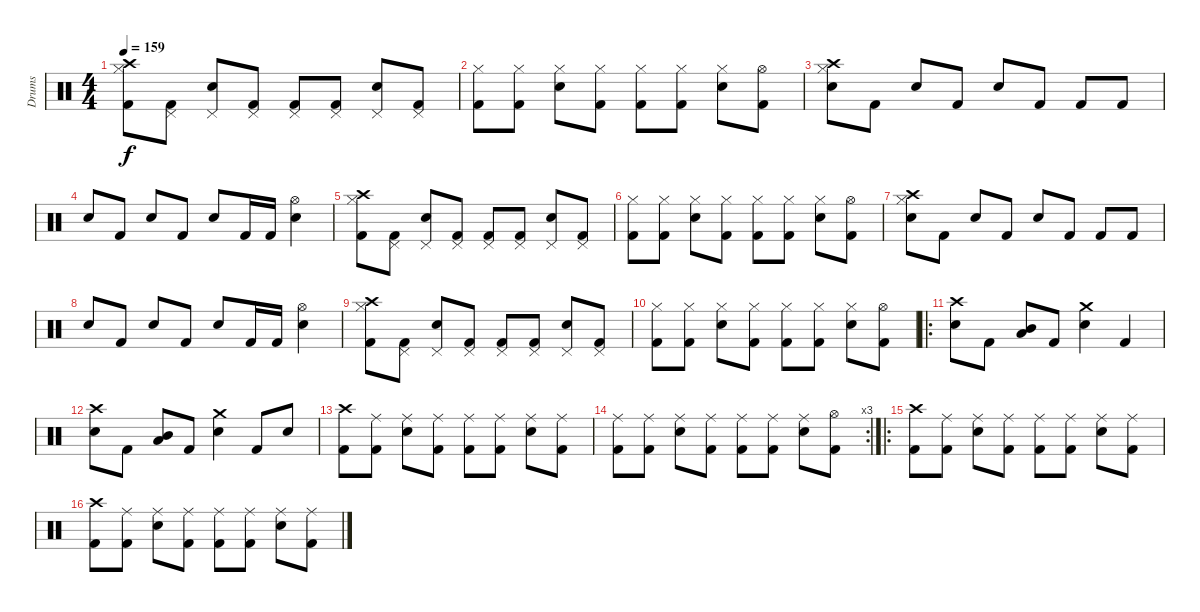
\track ("Drums" "Drums") {instrument percussion}
\staff {score}
\articulation defaults
\ts (4 4)
\tempo 159
\clef neutral
\ks c
("Crash high (hit)" "Hi-Hat (closed)" "Kick (hit) 2").8{dy f} ("Pedal Hi-Hat (hit)" "Kick (hit) 2").8 ("Pedal Hi-Hat (hit)" "Snare (hit) 2").8 ("Pedal Hi-Hat (hit)" "Kick (hit) 2").8 ("Pedal Hi-Hat (hit)" "Kick (hit) 2").8 ("Pedal Hi-Hat (hit)" "Kick (hit) 2").8 ("Pedal Hi-Hat (hit)" "Snare (hit) 2").8 ("Pedal Hi-Hat (hit)" "Kick (hit) 2").8 |
("Hi-Hat (closed)" "Kick (hit) 2").8 ("Hi-Hat (closed)" "Kick (hit) 2").8 ("Hi-Hat (closed)" "Snare (hit) 2").8 ("Hi-Hat (closed)" "Kick (hit) 2").8 ("Hi-Hat (closed)" "Kick (hit) 2").8 ("Hi-Hat (closed)" "Kick (hit) 2").8 ("Hi-Hat (closed)" "Snare (hit) 2").8 ("Hi-Hat (open)" "Kick (hit) 2").8 |
("Crash high (hit)" "Hi-Hat (closed)" "Snare (hit) 2").8 "Kick (hit) 2".8 "Snare (hit) 2".8 "Kick (hit) 2".8 "Snare (hit) 2".8 "Kick (hit) 2".8 "Kick (hit) 2".8 "Kick (hit) 2".8 |
"Snare (hit) 2".8 "Kick (hit) 2".8 "Snare (hit) 2".8 "Kick (hit) 2".8 "Snare (hit) 2".8 "Kick (hit) 2".16 "Kick (hit) 2".16 ("Hi-Hat (open)" "Snare (hit) 2").4 |
("Crash high (hit)" "Hi-Hat (closed)" "Kick (hit) 2").8 ("Pedal Hi-Hat (hit)" "Kick (hit) 2").8 ("Pedal Hi-Hat (hit)" "Snare (hit) 2").8 ("Pedal Hi-Hat (hit)" "Kick (hit) 2").8 ("Pedal Hi-Hat (hit)" "Kick (hit) 2").8 ("Pedal Hi-Hat (hit)" "Kick (hit) 2").8 ("Pedal Hi-Hat (hit)" "Snare (hit) 2").8 ("Pedal Hi-Hat (hit)" "Kick (hit) 2").8 |
("Hi-Hat (closed)" "Kick (hit) 2").8 ("Hi-Hat (closed)" "Kick (hit) 2").8 ("Hi-Hat (closed)" "Snare (hit) 2").8 ("Hi-Hat (closed)" "Kick (hit) 2").8 ("Hi-Hat (closed)" "Kick (hit) 2").8 ("Hi-Hat (closed)" "Kick (hit) 2").8 ("Hi-Hat (closed)" "Snare (hit) 2").8 ("Hi-Hat (open)" "Kick (hit) 2").8 |
("Crash high (hit)" "Hi-Hat (closed)" "Snare (hit) 2").8 "Kick (hit) 2".8 "Snare (hit) 2".8 "Kick (hit) 2".8 "Snare (hit) 2".8 "Kick (hit) 2".8 "Kick (hit) 2".8 "Kick (hit) 2".8 |
"Snare (hit) 2".8 "Kick (hit) 2".8 "Snare (hit) 2".8 "Kick (hit) 2".8 "Snare (hit) 2".8 "Kick (hit) 2".16 "Kick (hit) 2".16 ("Hi-Hat (open)" "Snare (hit) 2").4 |
("Crash high (hit)" "Hi-Hat (closed)" "Kick (hit) 2").8 ("Pedal Hi-Hat (hit)" "Kick (hit) 2").8 ("Pedal Hi-Hat (hit)" "Snare (hit) 2").8 ("Pedal Hi-Hat (hit)" "Kick (hit) 2").8 ("Pedal Hi-Hat (hit)" "Kick (hit) 2").8 ("Pedal Hi-Hat (hit)" "Kick (hit) 2").8 ("Pedal Hi-Hat (hit)" "Snare (hit) 2").8 ("Pedal Hi-Hat (hit)" "Kick (hit) 2").8 |
("Hi-Hat (closed)" "Kick (hit) 2").8 ("Hi-Hat (closed)" "Kick (hit) 2").8 ("Hi-Hat (closed)" "Snare (hit) 2").8 ("Hi-Hat (closed)" "Kick (hit) 2").8 ("Hi-Hat (closed)" "Kick (hit) 2").8 ("Hi-Hat (closed)" "Kick (hit) 2").8 ("Hi-Hat (closed)" "Snare (hit) 2").8 ("Hi-Hat (open)" "Kick (hit) 2").8 |
\ro
("Crash high (hit)" "Snare (hit) 2").8 "Kick (hit) 2".8 ("Mid Tom (hit)" "Low Floor Tom (hit)").8 "Kick (hit) 2".8 ("Crash medium (hit)" "Snare (hit) 2").4 "Kick (hit) 2".4 |
("Crash high (hit)" "Snare (hit) 2").8 "Kick (hit) 2".8 ("Mid Tom (hit)" "Low Floor Tom (hit)").8 "Kick (hit) 2".8 ("Crash medium (hit)" "Snare (hit) 2").4 "Kick (hit) 2".8 "Snare (hit) 2".8 |
("Crash high (hit)" "Kick (hit) 2").8 ("Ride (middle)" "Kick (hit) 2").8 ("Ride (middle)" "Snare (hit) 2").8 ("Ride (middle)" "Kick (hit) 2").8 ("Ride (middle)" "Kick (hit) 2").8 ("Ride (middle)" "Kick (hit) 2").8 ("Ride (middle)" "Snare (hit) 2").8 ("Ride (middle)" "Kick (hit) 2").8 |
\rc 3
("Ride (middle)" "Kick (hit) 2").8 ("Ride (middle)" "Kick (hit) 2").8 ("Ride (middle)" "Snare (hit) 2").8 ("Ride (middle)" "Kick (hit) 2").8 ("Ride (middle)" "Kick (hit) 2").8 ("Ride (middle)" "Kick (hit) 2").8 ("Ride (middle)" "Snare (hit) 2").8 ("Hi-Hat (open)" "Kick (hit) 2").8 |
\ro
("Crash high (hit)" "Kick (hit) 2").8 ("Ride (middle)" "Kick (hit) 2").8 ("Ride (middle)" "Snare (hit) 2").8 ("Ride (middle)" "Kick (hit) 2").8 ("Ride (middle)" "Kick (hit) 2").8 ("Ride (middle)" "Kick (hit) 2").8 ("Ride (middle)" "Snare (hit) 2").8 ("Ride (middle)" "Kick (hit) 2").8 |
("Crash high (hit)" "Kick (hit) 2").8 ("Ride (middle)" "Kick (hit) 2").8 ("Ride (middle)" "Snare (hit) 2").8 ("Ride (middle)" "Kick (hit) 2").8 ("Ride (middle)" "Kick (hit) 2").8 ("Ride (middle)" "Kick (hit) 2").8 ("Ride (middle)" "Snare (hit) 2").8 ("Ride (middle)" "Kick (hit) 2").8
